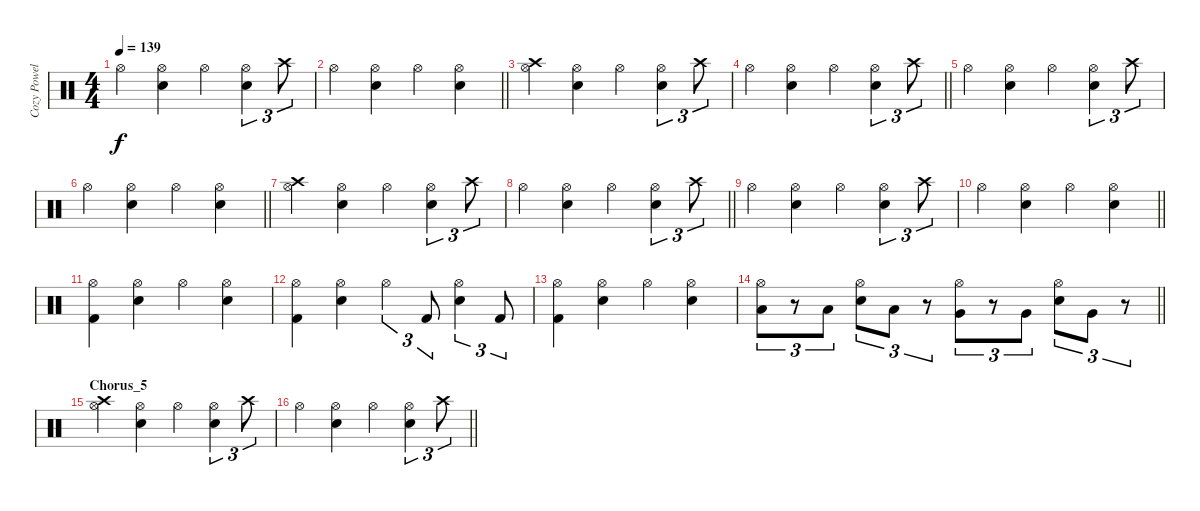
\track ("Cozy Powell" "Cozy Powel") {instrument percussion}
\staff {score}
\articulation defaults
\ts (4 4)
\tempo 139
\clef neutral
\ks c "Hi-Hat (open)".4{dy f}
("Hi-Hat (open)" "Snare (hit) 2").4 "Hi-Hat (open)".4 ("Hi-Hat (open)" "Snare (hit) 2").4{tu (3 2)} "Crash high (hit)".8{tu (3 2)} |
\barLineRight lightlight "Hi-Hat (open)".4
("Hi-Hat (open)" "Snare (hit) 2").4 "Hi-Hat (open)".4 ("Hi-Hat (open)" "Snare (hit) 2").4 |
("Hi-Hat (open)" "Crash high (hit)").4 ("Hi-Hat (open)" "Snare (hit) 2").4 "Hi-Hat (open)".4 ("Hi-Hat (open)" "Snare (hit) 2").4{tu (3 2)} "Crash high (hit)".8{tu (3 2)} |
\barLineRight lightlight "Hi-Hat (open)".4
("Hi-Hat (open)" "Snare (hit) 2").4 "Hi-Hat (open)".4 ("Hi-Hat (open)" "Snare (hit) 2").4{tu (3 2)} "Crash high (hit)".8{tu (3 2)} |
"Hi-Hat (open)".4 ("Hi-Hat (open)" "Snare (hit) 2").4 "Hi-Hat (open)".4 ("Hi-Hat (open)" "Snare (hit) 2").4{tu (3 2)} "Crash high (hit)".8{tu (3 2)} |
\barLineRight lightlight "Hi-Hat (open)".4
("Hi-Hat (open)" "Snare (hit) 2").4 "Hi-Hat (open)".4 ("Hi-Hat (open)" "Snare (hit) 2").4 |
("Hi-Hat (open)" "Crash high (hit)").4 ("Hi-Hat (open)" "Snare (hit) 2").4 "Hi-Hat (open)".4 ("Hi-Hat (open)" "Snare (hit) 2").4{tu (3 2)} "Crash high (hit)".8{tu (3 2)} |
\barLineRight lightlight "Hi-Hat (open)".4
("Hi-Hat (open)" "Snare (hit) 2").4 "Hi-Hat (open)".4 ("Hi-Hat (open)" "Snare (hit) 2").4{tu (3 2)} "Crash high (hit)".8{tu (3 2)} |
"Hi-Hat (open)".4 ("Hi-Hat (open)" "Snare (hit) 2").4 "Hi-Hat (open)".4 ("Hi-Hat (open)" "Snare (hit) 2").4{tu (3 2)} "Crash high (hit)".8{tu (3 2)} |
\barLineRight lightlight "Hi-Hat (open)".4
("Hi-Hat (open)" "Snare (hit) 2").4 "Hi-Hat (open)".4 ("Hi-Hat (open)" "Snare (hit) 2").4 |
("Hi-Hat (open)" "Kick (hit) 2").4 ("Hi-Hat (open)" "Snare (hit) 2").4 "Hi-Hat (open)".4 ("Hi-Hat (open)" "Snare (hit) 2").4 |
("Hi-Hat (open)" "Kick (hit) 2").4 ("Hi-Hat (open)" "Snare (hit) 2").4 "Hi-Hat (open)".4{tu (3 2)} "Kick (hit) 2".8{tu (3 2)} ("Hi-Hat (open)" "Snare (hit) 2").4{tu (3 2)} "Kick (hit) 2".8{tu (3 2)} |
("Hi-Hat (open)" "Kick (hit) 2").4 ("Hi-Hat (open)" "Snare (hit) 2").4 "Hi-Hat (open)".4 ("Hi-Hat (open)" "Snare (hit) 2").4 |
\barLineRight lightlight
("Hi-Hat (open)" "Low Tom (hit)").8{tu (3 2)} r.8{tu (3 2)} "Low Tom (hit)".8{tu (3 2)} ("Hi-Hat (open)" "Snare (hit) 2").8{tu (3 2)} "Low Tom (hit)".8{tu (3 2)} r.8{tu (3 2)} ("Hi-Hat (open)" "Very Low Tom (hit)").8{tu (3 2)} r.8{tu (3 2)} "Very Low Tom (hit)".8{tu (3 2)} ("Hi-Hat (open)" "Snare (hit) 2").8{tu (3 2)} "Very Low Tom (hit)".8{tu (3 2)} r.8{tu (3 2)} |
\section ("" "Chorus_5")
("Hi-Hat (open)" "Crash high (hit)").4 ("Hi-Hat (open)" "Snare (hit) 2").4 "Hi-Hat (open)".4 ("Hi-Hat (open)" "Snare (hit) 2").4{tu (3 2)} "Crash high (hit)".8{tu (3 2)} |
\barLineRight lightlight "Hi-Hat (open)".4
("Hi-Hat (open)" "Snare (hit) 2").4 "Hi-Hat (open)".4 ("Hi-Hat (open)" "Snare (hit) 2").4{tu (3 2)} "Crash high (hit)".8{tu (3 2)}
